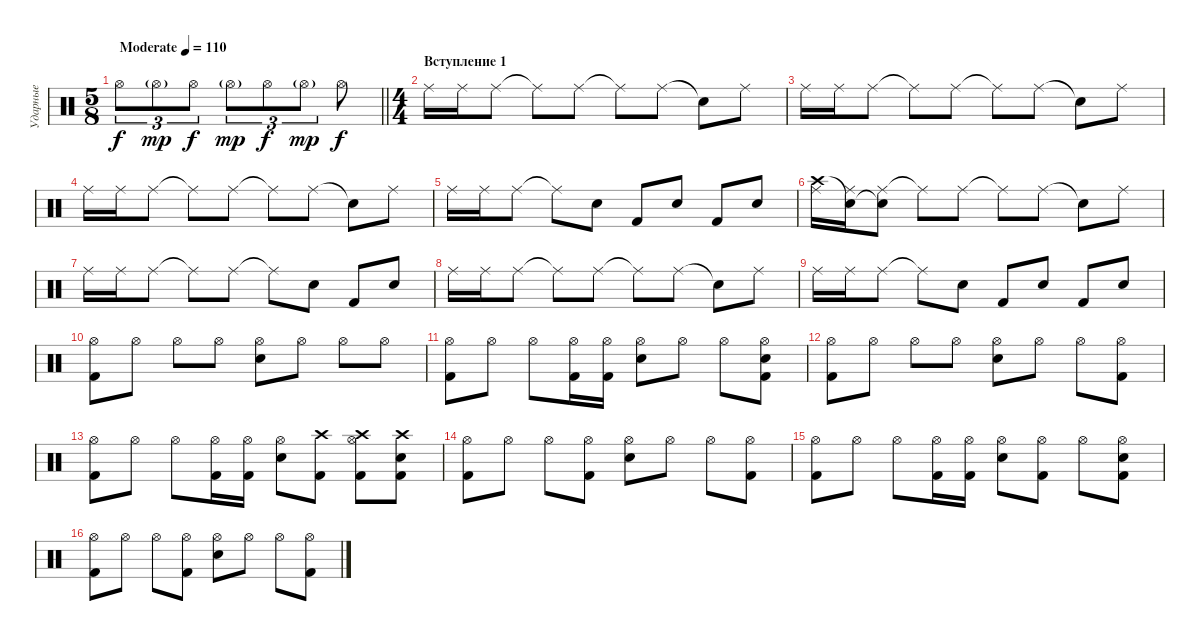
\track ("Ударные" "Ударные") {instrument percussion}
\staff {score}
\articulation defaults
\ts (5 8)
\tempo (110 "Moderate")
\clef neutral
\barLineRight lightlight
\ks c "Hi-Hat (open)".8{tu (3 2) dy f} "Hi-Hat (open)"{g}.8{tu (3 2) dy mp} "Hi-Hat (open)".8{tu (3 2) dy f} "Hi-Hat (open)"{g}.8{tu (3 2) dy mp} "Hi-Hat (open)".8{tu (3 2) dy f} "Hi-Hat (open)"{g}.8{tu (3 2) dy mp} "Hi-Hat (open)".8{dy f}
|
\ts (4 4)
\section ("" "Вступление 1")
"Ride (middle)".16 "Ride (middle)".16 "Ride (middle)".8 "Ride (middle)"{t}.8 "Ride (middle)".8 "Ride (middle)"{t}.8 "Ride (middle)".8 "Snare (hit)"{t}.8 "Ride (middle)".8 |
"Ride (middle)".16 "Ride (middle)".16 "Ride (middle)".8 "Ride (middle)"{t}.8 "Ride (middle)".8 "Ride (middle)"{t}.8 "Ride (middle)".8 "Snare (hit)"{t}.8 "Ride (middle)".8 |
"Ride (middle)".16 "Ride (middle)".16 "Ride (middle)".8 "Ride (middle)"{t}.8 "Ride (middle)".8 "Ride (middle)"{t}.8 "Ride (middle)".8 "Snare (hit)"{t}.8 "Ride (middle)".8 |
"Ride (middle)".16 "Ride (middle)".16 "Ride (middle)".8 "Ride (middle)"{t}.8 "Electric Snare (hit)".8 "Kick (hit) 2".8 "Electric Snare (hit)".8 "Kick (hit) 2".8 "Electric Snare (hit)".8 |
("Ride (middle)" "Crash high (hit)").16 ("Ride (middle)" "Snare (hit)"{t}).16 ("Ride (middle)" "Snare (hit)"{t}).8 "Ride (middle)"{t}.8 "Ride (middle)".8 "Ride (middle)"{t}.8 "Ride (middle)".8 "Snare (hit)"{t}.8 "Ride (middle)".8 |
"Ride (middle)".16 "Ride (middle)".16 "Ride (middle)".8 "Ride (middle)"{t}.8 "Ride (middle)".8 "Ride (middle)"{t}.8 "Electric Snare (hit)".8 "Kick (hit) 2".8 "Electric Snare (hit)".8 |
"Ride (middle)".16 "Ride (middle)".16 "Ride (middle)".8 "Ride (middle)"{t}.8 "Ride (middle)".8 "Ride (middle)"{t}.8 "Ride (middle)".8 "Snare (hit)"{t}.8 "Ride (middle)".8 |
"Ride (middle)".16 "Ride (middle)".16 "Ride (middle)".8 "Ride (middle)"{t}.8 "Electric Snare (hit)".8 "Kick (hit) 2".8 "Electric Snare (hit)".8 "Kick (hit) 2".8 "Electric Snare (hit)".8 |
("Hi-Hat (open)" "Kick (hit) 2").8 "Hi-Hat (open)".8 "Hi-Hat (open)".8 "Hi-Hat (open)".8 ("Hi-Hat (open)" "Electric Snare (hit)").8 "Hi-Hat (open)".8 "Hi-Hat (open)".8 "Hi-Hat (open)".8 |
("Hi-Hat (open)" "Kick (hit) 2").8 "Hi-Hat (open)".8 "Hi-Hat (open)".8 ("Hi-Hat (open)" "Kick (hit) 2").16 ("Hi-Hat (open)" "Kick (hit) 2").16 ("Hi-Hat (open)" "Electric Snare (hit)").8 "Hi-Hat (open)".8 "Hi-Hat (open)".8 ("Electric Snare (hit)" "Hi-Hat (open)" "Kick (hit) 2").8 |
("Hi-Hat (open)" "Kick (hit) 2").8 "Hi-Hat (open)".8 "Hi-Hat (open)".8 "Hi-Hat (open)".8 ("Hi-Hat (open)" "Electric Snare (hit)").8 "Hi-Hat (open)".8 "Hi-Hat (open)".8 ("Hi-Hat (open)" "Kick (hit) 2").8 |
("Hi-Hat (open)" "Kick (hit) 2").8 "Hi-Hat (open)".8 "Hi-Hat (open)".8 ("Hi-Hat (open)" "Kick (hit) 2").16 ("Hi-Hat (open)" "Kick (hit) 2").16 ("Hi-Hat (open)" "Electric Snare (hit)").8 ("Crash high (hit)" "Kick (hit) 2").8 ("Crash high (hit)" "Hi-Hat (open)" "Kick (hit) 2").8 ("Crash high (hit)" "Electric Snare (hit)" "Kick (hit) 2").8 |
("Hi-Hat (open)" "Kick (hit) 2").8 "Hi-Hat (open)".8 "Hi-Hat (open)".8 ("Hi-Hat (open)" "Kick (hit) 2").8 ("Hi-Hat (open)" "Electric Snare (hit)").8 "Hi-Hat (open)".8 "Hi-Hat (open)".8 ("Hi-Hat (open)" "Kick (hit) 2").8 |
("Hi-Hat (open)" "Kick (hit) 2").8 "Hi-Hat (open)".8 "Hi-Hat (open)".8 ("Hi-Hat (open)" "Kick (hit) 2").16 ("Hi-Hat (open)" "Kick (hit) 2").16 ("Hi-Hat (open)" "Electric Snare (hit)").8 ("Hi-Hat (open)" "Kick (hit) 2").8 "Hi-Hat (open)".8 ("Electric Snare (hit)" "Hi-Hat (open)" "Kick (hit) 2").8 |
("Hi-Hat (open)" "Kick (hit) 2").8 "Hi-Hat (open)".8 "Hi-Hat (open)".8 ("Hi-Hat (open)" "Kick (hit) 2").8 ("Hi-Hat (open)" "Electric Snare (hit)").8 "Hi-Hat (open)".8 "Hi-Hat (open)".8 ("Hi-Hat (open)" "Kick (hit) 2").8
